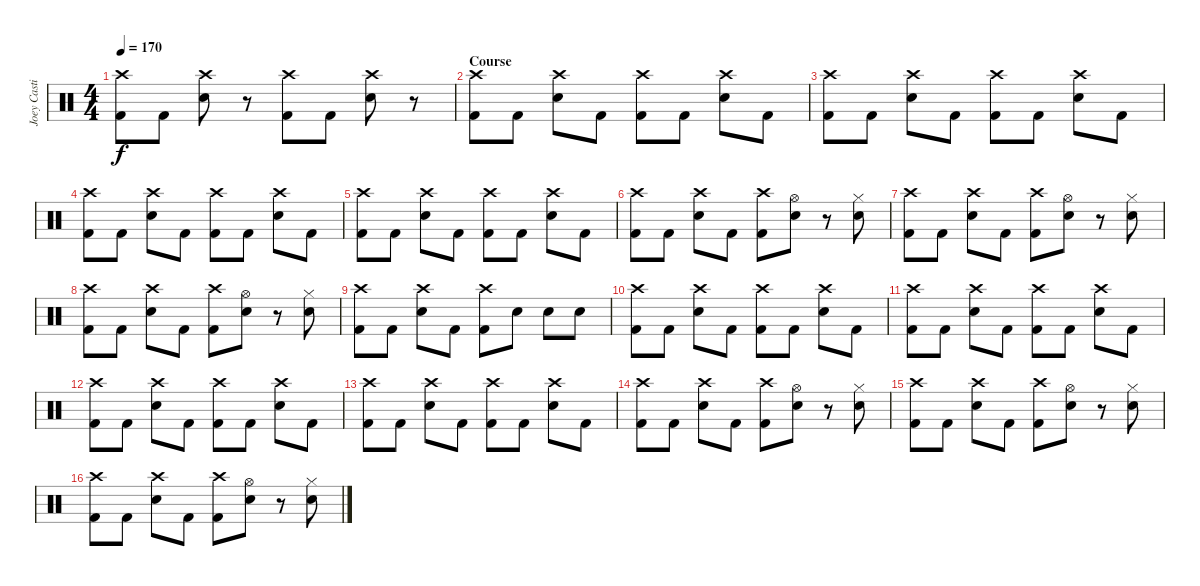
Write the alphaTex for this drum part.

\track ("Joey Castillo - drums" "Joey Casti") {instrument percussion}
\staff {score}
\articulation defaults
\ts (4 4)
\tempo 170
\clef neutral
\ks c
("Kick (hit) 2" "Crash high (hit)").8{dy f} "Kick (hit) 2".8 ("Snare (hit) 2" "Crash high (hit)").8 r.8 ("Kick (hit) 2" "Crash high (hit)").8 "Kick (hit) 2".8 ("Snare (hit) 2" "Crash high (hit)").8 r.8 |
\section ("" "Course")
("Kick (hit) 2" "Crash high (hit)").8 "Kick (hit) 2".8 ("Electric Snare (hit)" "Crash high (hit)").8 "Kick (hit) 2".8 ("Kick (hit) 2" "Crash high (hit)").8 "Kick (hit) 2".8 ("Electric Snare (hit)" "Crash high (hit)").8 "Kick (hit) 2".8 |
("Kick (hit) 2" "Crash high (hit)").8 "Kick (hit) 2".8 ("Electric Snare (hit)" "Crash high (hit)").8 "Kick (hit) 2".8 ("Kick (hit) 2" "Crash high (hit)").8 "Kick (hit) 2".8 ("Electric Snare (hit)" "Crash high (hit)").8 "Kick (hit) 2".8 |
("Kick (hit) 2" "Crash high (hit)").8 "Kick (hit) 2".8 ("Electric Snare (hit)" "Crash high (hit)").8 "Kick (hit) 2".8 ("Kick (hit) 2" "Crash high (hit)").8 "Kick (hit) 2".8 ("Electric Snare (hit)" "Crash high (hit)").8 "Kick (hit) 2".8 |
("Kick (hit) 2" "Crash high (hit)").8 "Kick (hit) 2".8 ("Electric Snare (hit)" "Crash high (hit)").8 "Kick (hit) 2".8 ("Kick (hit) 2" "Crash high (hit)").8 "Kick (hit) 2".8 ("Electric Snare (hit)" "Crash high (hit)").8 "Kick (hit) 2".8 |
("Kick (hit) 2" "Crash high (hit)").8 "Kick (hit) 2".8 ("Electric Snare (hit)" "Crash high (hit)").8 "Kick (hit) 2".8 ("Kick (hit) 2" "Crash high (hit)").8 ("Electric Snare (hit)" "Hi-Hat (open)").8 r.8 ("Electric Snare (hit)" "Hi-Hat (closed)").8 |
("Kick (hit) 2" "Crash high (hit)").8 "Kick (hit) 2".8 ("Electric Snare (hit)" "Crash high (hit)").8 "Kick (hit) 2".8 ("Kick (hit) 2" "Crash high (hit)").8 ("Electric Snare (hit)" "Hi-Hat (open)").8 r.8 ("Electric Snare (hit)" "Hi-Hat (closed)").8 |
("Kick (hit) 2" "Crash high (hit)").8 "Kick (hit) 2".8 ("Electric Snare (hit)" "Crash high (hit)").8 "Kick (hit) 2".8 ("Kick (hit) 2" "Crash high (hit)").8 ("Electric Snare (hit)" "Hi-Hat (open)").8 r.8 ("Electric Snare (hit)" "Hi-Hat (closed)").8 |
("Kick (hit) 2" "Crash high (hit)").8 "Kick (hit) 2".8 ("Electric Snare (hit)" "Crash high (hit)").8 "Kick (hit) 2".8 ("Kick (hit) 2" "Crash high (hit)").8 "Electric Snare (hit)".8 "Electric Snare (hit)".8 "Electric Snare (hit)".8 |
\section ("" "")
("Kick (hit) 2" "Crash high (hit)").8 "Kick (hit) 2".8 ("Electric Snare (hit)" "Crash high (hit)").8 "Kick (hit) 2".8 ("Kick (hit) 2" "Crash high (hit)").8 "Kick (hit) 2".8 ("Electric Snare (hit)" "Crash high (hit)").8 "Kick (hit) 2".8 |
("Kick (hit) 2" "Crash high (hit)").8 "Kick (hit) 2".8 ("Electric Snare (hit)" "Crash high (hit)").8 "Kick (hit) 2".8 ("Kick (hit) 2" "Crash high (hit)").8 "Kick (hit) 2".8 ("Electric Snare (hit)" "Crash high (hit)").8 "Kick (hit) 2".8 |
("Kick (hit) 2" "Crash high (hit)").8 "Kick (hit) 2".8 ("Electric Snare (hit)" "Crash high (hit)").8 "Kick (hit) 2".8 ("Kick (hit) 2" "Crash high (hit)").8 "Kick (hit) 2".8 ("Electric Snare (hit)" "Crash high (hit)").8 "Kick (hit) 2".8 |
("Kick (hit) 2" "Crash high (hit)").8 "Kick (hit) 2".8 ("Electric Snare (hit)" "Crash high (hit)").8 "Kick (hit) 2".8 ("Kick (hit) 2" "Crash high (hit)").8 "Kick (hit) 2".8 ("Electric Snare (hit)" "Crash high (hit)").8 "Kick (hit) 2".8 |
("Kick (hit) 2" "Crash high (hit)").8 "Kick (hit) 2".8 ("Electric Snare (hit)" "Crash high (hit)").8 "Kick (hit) 2".8 ("Kick (hit) 2" "Crash high (hit)").8 ("Electric Snare (hit)" "Hi-Hat (open)").8 r.8 ("Electric Snare (hit)" "Hi-Hat (closed)").8 |
("Kick (hit) 2" "Crash high (hit)").8 "Kick (hit) 2".8 ("Electric Snare (hit)" "Crash high (hit)").8 "Kick (hit) 2".8 ("Kick (hit) 2" "Crash high (hit)").8 ("Electric Snare (hit)" "Hi-Hat (open)").8 r.8 ("Electric Snare (hit)" "Hi-Hat (closed)").8 |
("Kick (hit) 2" "Crash high (hit)").8 "Kick (hit) 2".8 ("Electric Snare (hit)" "Crash high (hit)").8 "Kick (hit) 2".8 ("Kick (hit) 2" "Crash high (hit)").8 ("Electric Snare (hit)" "Hi-Hat (open)").8 r.8 ("Electric Snare (hit)" "Hi-Hat (closed)").8
